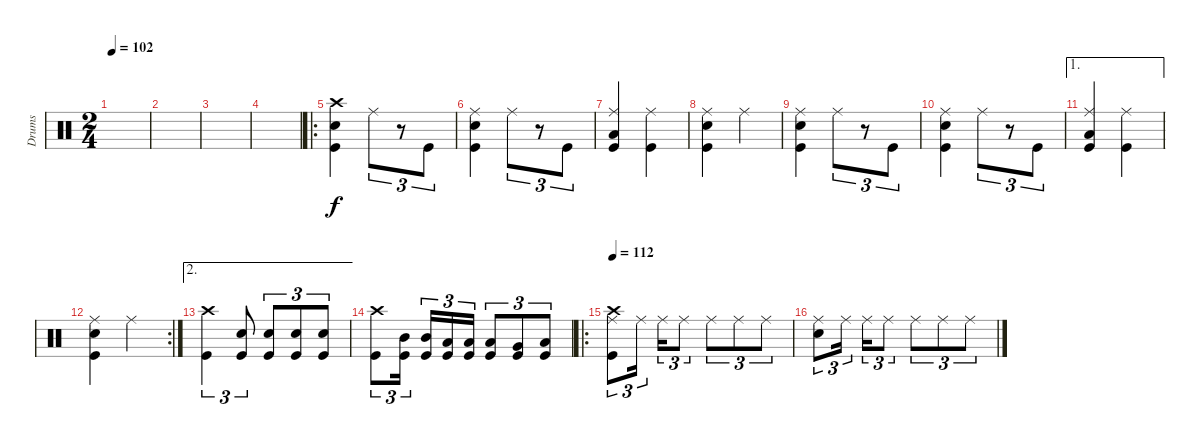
\track ("Drums" "Drums") {instrument percussion}
\staff {score}
\articulation defaults
\ts (2 4)
\tempo 102
\clef neutral
\ks c
|
|
|
|
\ro
("Crash high (hit)" "Kick (hit)" "Snare (hit) 2").4 "Ride (middle)".8{tu (3 2)} r.8{tu (3 2)} "Kick (hit)".8{tu (3 2)} |
("Ride (middle)" "Kick (hit)" "Snare (hit) 2").4 "Ride (middle)".8{tu (3 2)} r.8{tu (3 2)} "Kick (hit)".8{tu (3 2)} |
("Ride (middle)" "Kick (hit)" "Low Tom (hit)").4 ("Ride (middle)" "Kick (hit)").4 |
("Ride (middle)" "Kick (hit)" "Snare (hit) 2").4 "Ride (middle)".4 |
("Ride (middle)" "Kick (hit)" "Snare (hit) 2").4 "Ride (middle)".8{tu (3 2)} r.8{tu (3 2)} "Kick (hit)".8{tu (3 2)} |
("Ride (middle)" "Kick (hit)" "Snare (hit) 2").4 "Ride (middle)".8{tu (3 2)} r.8{tu (3 2)} "Kick (hit)".8{tu (3 2)} |
\ae 1
("Ride (middle)" "Kick (hit)" "Low Tom (hit)").4 ("Ride (middle)" "Kick (hit)").4 |
\rc 2
("Ride (middle)" "Kick (hit)" "Snare (hit) 2").4 "Ride (middle)".4 |
\ae 2
("Crash high (hit)" "Kick (hit)").4{tu (3 2)} ("Kick (hit)" "Electric Snare (hit)").8{tu (3 2)} ("Kick (hit)" "Electric Snare (hit)").8{tu (3 2)} ("Kick (hit)" "Electric Snare (hit)").8{tu (3 2)} ("Kick (hit)" "Electric Snare (hit)").8{tu (3 2)} |
("Crash high (hit)" "Kick (hit)").8{tu (3 2)} ("Kick (hit)" "Mid Tom (hit)").16{tu (3 2) beam splitsecondary} ("Kick (hit)" "Mid Tom (hit)").16{tu (3 2)} ("Kick (hit)" "Low Tom (hit)").16{tu (3 2)} ("Kick (hit)" "Low Tom (hit)").16{tu (3 2)} ("Kick (hit)" "Low Tom (hit)").8{tu (3 2)} ("Kick (hit)" "Very Low Tom (hit)").8{tu (3 2)} ("Kick (hit)" "Low Floor Tom (hit)").8{tu (3 2)} |
\ro
\tempo 112
("Crash high (hit)" "Ride (middle)" "Kick (hit)").8{tu (3 2)} "Ride (middle)".16{tu (3 2) beam splitsecondary} "Ride (middle)".16{tu (3 2)} "Ride (middle)".8{tu (3 2)} "Ride (middle)".8{tu (3 2)} "Ride (middle)".8{tu (3 2)} "Ride (middle)".8{tu (3 2)} |
("Ride (middle)" "Snare (hit) 2").8{tu (3 2)} "Ride (middle)".16{tu (3 2) beam splitsecondary} "Ride (middle)".16{tu (3 2)} "Ride (middle)".8{tu (3 2)} "Ride (middle)".8{tu (3 2)} "Ride (middle)".8{tu (3 2)} "Ride (middle)".8{tu (3 2)}
